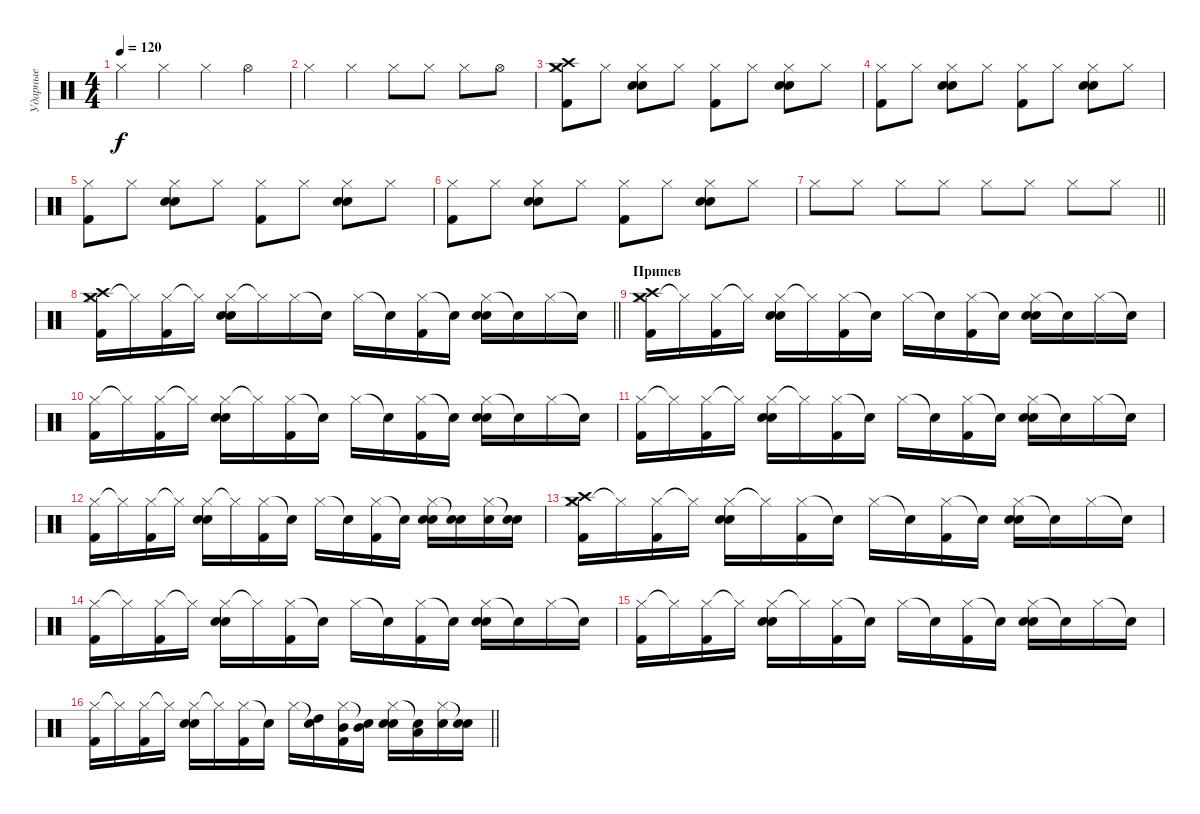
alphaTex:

\track ("Ударные" "Ударные") {instrument percussion}
\staff {score}
\articulation defaults
\ts (4 4)
\tempo 120
\clef neutral
\ks c "Hi-Hat (closed)".4{dy f} "Hi-Hat (closed)".4 "Hi-Hat (closed)".4 "Hi-Hat (open)".4
|
"Hi-Hat (closed)".4 "Hi-Hat (closed)".4 "Hi-Hat (closed)".8 "Hi-Hat (closed)".8 "Hi-Hat (closed)".8 "Hi-Hat (open)".8 |
("Hi-Hat (closed)" "Crash high (hit)" "Crash medium (hit)" "Kick (hit) 2").8 "Hi-Hat (closed)".8 ("Hi-Hat (closed)" "Electric Snare (hit)" "Snare (hit) 2").8 "Hi-Hat (closed)".8 ("Hi-Hat (closed)" "Kick (hit) 2").8 "Hi-Hat (closed)".8 ("Hi-Hat (closed)" "Snare (hit) 2" "Electric Snare (hit)").8 "Hi-Hat (closed)".8 |
("Hi-Hat (closed)" "Kick (hit) 2").8 "Hi-Hat (closed)".8 ("Hi-Hat (closed)" "Electric Snare (hit)" "Snare (hit) 2").8 "Hi-Hat (closed)".8 ("Hi-Hat (closed)" "Kick (hit) 2").8 "Hi-Hat (closed)".8 ("Hi-Hat (closed)" "Snare (hit) 2" "Electric Snare (hit)").8 "Hi-Hat (closed)".8 |
("Hi-Hat (closed)" "Kick (hit) 2").8 "Hi-Hat (closed)".8 ("Hi-Hat (closed)" "Electric Snare (hit)" "Snare (hit) 2").8 "Hi-Hat (closed)".8 ("Hi-Hat (closed)" "Kick (hit) 2").8 "Hi-Hat (closed)".8 ("Hi-Hat (closed)" "Snare (hit) 2" "Electric Snare (hit)").8 "Hi-Hat (closed)".8 |
("Hi-Hat (closed)" "Kick (hit) 2").8 "Hi-Hat (closed)".8 ("Hi-Hat (closed)" "Electric Snare (hit)" "Snare (hit) 2").8 "Hi-Hat (closed)".8 ("Hi-Hat (closed)" "Kick (hit) 2").8 "Hi-Hat (closed)".8 ("Hi-Hat (closed)" "Snare (hit) 2" "Electric Snare (hit)").8 "Hi-Hat (closed)".8 |
\barLineRight lightlight "Hi-Hat (closed)".8 "Hi-Hat (closed)".8 "Hi-Hat (closed)".8 "Hi-Hat (closed)".8 "Hi-Hat (closed)".8 "Hi-Hat (closed)".8 "Hi-Hat (closed)".8 "Hi-Hat (closed)".8
|
\barLineRight lightlight
("Hi-Hat (closed)" "Crash medium (hit)" "Crash high (hit)" "Kick (hit) 2").16 "Hi-Hat (closed)"{t}.16 ("Hi-Hat (closed)" "Kick (hit) 2").16 "Hi-Hat (closed)"{t}.16 ("Hi-Hat (closed)" "Electric Snare (hit)" "Snare (hit) 2").16 "Hi-Hat (closed)"{t}.16 "Hi-Hat (closed)".16 "Snare (hit)"{t}.16 "Hi-Hat (closed)".16 "Snare (hit)"{t}.16 ("Hi-Hat (closed)" "Kick (hit) 2").16 "Snare (hit)"{t}.16 ("Hi-Hat (closed)" "Electric Snare (hit)" "Snare (hit) 2").16 "Snare (hit)"{t}.16 "Hi-Hat (closed)".16 "Snare (hit)"{t}.16 |
\section ("" "Припев")
("Hi-Hat (closed)" "Crash medium (hit)" "Crash high (hit)" "Kick (hit) 2").16 "Hi-Hat (closed)"{t}.16 ("Hi-Hat (closed)" "Kick (hit) 2").16 "Hi-Hat (closed)"{t}.16 ("Hi-Hat (closed)" "Electric Snare (hit)" "Snare (hit) 2").16 "Hi-Hat (closed)"{t}.16 ("Hi-Hat (closed)" "Kick (hit) 2").16 "Snare (hit)"{t}.16 "Hi-Hat (closed)".16 "Snare (hit)"{t}.16 ("Hi-Hat (closed)" "Kick (hit) 2").16 "Snare (hit)"{t}.16 ("Hi-Hat (closed)" "Electric Snare (hit)" "Snare (hit) 2").16 "Snare (hit)"{t}.16 "Hi-Hat (closed)".16 "Snare (hit)"{t}.16 |
("Hi-Hat (closed)" "Kick (hit) 2").16 "Hi-Hat (closed)"{t}.16 ("Hi-Hat (closed)" "Kick (hit) 2").16 "Hi-Hat (closed)"{t}.16 ("Hi-Hat (closed)" "Electric Snare (hit)" "Snare (hit) 2").16 "Hi-Hat (closed)"{t}.16 ("Hi-Hat (closed)" "Kick (hit) 2").16 "Snare (hit)"{t}.16 "Hi-Hat (closed)".16 "Snare (hit)"{t}.16 ("Hi-Hat (closed)" "Kick (hit) 2").16 "Snare (hit)"{t}.16 ("Hi-Hat (closed)" "Electric Snare (hit)" "Snare (hit) 2").16 "Snare (hit)"{t}.16 "Hi-Hat (closed)".16 "Snare (hit)"{t}.16 |
("Hi-Hat (closed)" "Kick (hit) 2").16 "Hi-Hat (closed)"{t}.16 ("Hi-Hat (closed)" "Kick (hit) 2").16 "Hi-Hat (closed)"{t}.16 ("Hi-Hat (closed)" "Electric Snare (hit)" "Snare (hit) 2").16 "Hi-Hat (closed)"{t}.16 ("Hi-Hat (closed)" "Kick (hit) 2").16 "Snare (hit)"{t}.16 "Hi-Hat (closed)".16 "Snare (hit)"{t}.16 ("Hi-Hat (closed)" "Kick (hit) 2").16 "Snare (hit)"{t}.16 ("Hi-Hat (closed)" "Electric Snare (hit)" "Snare (hit) 2").16 "Snare (hit)"{t}.16 "Hi-Hat (closed)".16 "Snare (hit)"{t}.16 |
("Hi-Hat (closed)" "Kick (hit) 2").16 "Hi-Hat (closed)"{t}.16 ("Hi-Hat (closed)" "Kick (hit) 2").16 "Hi-Hat (closed)"{t}.16 ("Hi-Hat (closed)" "Electric Snare (hit)" "Snare (hit) 2").16 "Hi-Hat (closed)"{t}.16 ("Hi-Hat (closed)" "Kick (hit) 2").16 "Snare (hit)"{t}.16 "Hi-Hat (closed)".16 "Snare (hit)"{t}.16 ("Hi-Hat (closed)" "Kick (hit) 2").16 "Snare (hit)"{t}.16 ("Hi-Hat (closed)" "Electric Snare (hit)" "Snare (hit) 2").16 ("Snare (hit)"{t} "Electric Snare (hit)").16 ("Hi-Hat (closed)" "Electric Snare (hit)").16 ("Snare (hit)"{t} "Electric Snare (hit)").16 |
("Hi-Hat (closed)" "Crash medium (hit)" "Crash high (hit)" "Kick (hit) 2").16 "Hi-Hat (closed)"{t}.16 ("Hi-Hat (closed)" "Kick (hit) 2").16 "Hi-Hat (closed)"{t}.16 ("Hi-Hat (closed)" "Electric Snare (hit)" "Snare (hit) 2").16 "Hi-Hat (closed)"{t}.16 ("Hi-Hat (closed)" "Kick (hit) 2").16 "Snare (hit)"{t}.16 "Hi-Hat (closed)".16 "Snare (hit)"{t}.16 ("Hi-Hat (closed)" "Kick (hit) 2").16 "Snare (hit)"{t}.16 ("Hi-Hat (closed)" "Electric Snare (hit)" "Snare (hit) 2").16 "Snare (hit)"{t}.16 "Hi-Hat (closed)".16 "Snare (hit)"{t}.16 |
("Hi-Hat (closed)" "Kick (hit) 2").16 "Hi-Hat (closed)"{t}.16 ("Hi-Hat (closed)" "Kick (hit) 2").16 "Hi-Hat (closed)"{t}.16 ("Hi-Hat (closed)" "Electric Snare (hit)" "Snare (hit) 2").16 "Hi-Hat (closed)"{t}.16 ("Hi-Hat (closed)" "Kick (hit) 2").16 "Snare (hit)"{t}.16 "Hi-Hat (closed)".16 "Snare (hit)"{t}.16 ("Hi-Hat (closed)" "Kick (hit) 2").16 "Snare (hit)"{t}.16 ("Hi-Hat (closed)" "Electric Snare (hit)" "Snare (hit) 2").16 "Snare (hit)"{t}.16 "Hi-Hat (closed)".16 "Snare (hit)"{t}.16 |
("Hi-Hat (closed)" "Kick (hit) 2").16 "Hi-Hat (closed)"{t}.16 ("Hi-Hat (closed)" "Kick (hit) 2").16 "Hi-Hat (closed)"{t}.16 ("Hi-Hat (closed)" "Electric Snare (hit)" "Snare (hit) 2").16 "Hi-Hat (closed)"{t}.16 ("Hi-Hat (closed)" "Kick (hit) 2").16 "Snare (hit)"{t}.16 "Hi-Hat (closed)".16 "Snare (hit)"{t}.16 ("Hi-Hat (closed)" "Kick (hit) 2").16 "Snare (hit)"{t}.16 ("Hi-Hat (closed)" "Electric Snare (hit)" "Snare (hit) 2").16 "Snare (hit)"{t}.16 "Hi-Hat (closed)".16 "Snare (hit)"{t}.16 |
\barLineRight lightlight
("Hi-Hat (closed)" "Kick (hit) 2").16 "Hi-Hat (closed)"{t}.16 ("Hi-Hat (closed)" "Kick (hit) 2").16 "Hi-Hat (closed)"{t}.16 ("Hi-Hat (closed)" "Electric Snare (hit)" "Snare (hit) 2").16 "Hi-Hat (closed)"{t}.16 ("Hi-Hat (closed)" "Kick (hit) 2").16 "Snare (hit)"{t}.16 "Hi-Hat (closed)".16 ("Snare (hit)"{t} "High Tom (hit)").16 ("Hi-Hat (closed)" "Mid Tom (hit)" "Kick (hit) 2").16 ("Snare (hit)"{t} "Mid Tom (hit)").16 ("Hi-Hat (closed)" "Electric Snare (hit)" "Snare (hit) 2").16 ("Snare (hit)"{t} "Low Tom (hit)").16 ("Hi-Hat (closed)" "Electric Snare (hit)").16 ("Snare (hit)"{t} "Electric Snare (hit)").16
